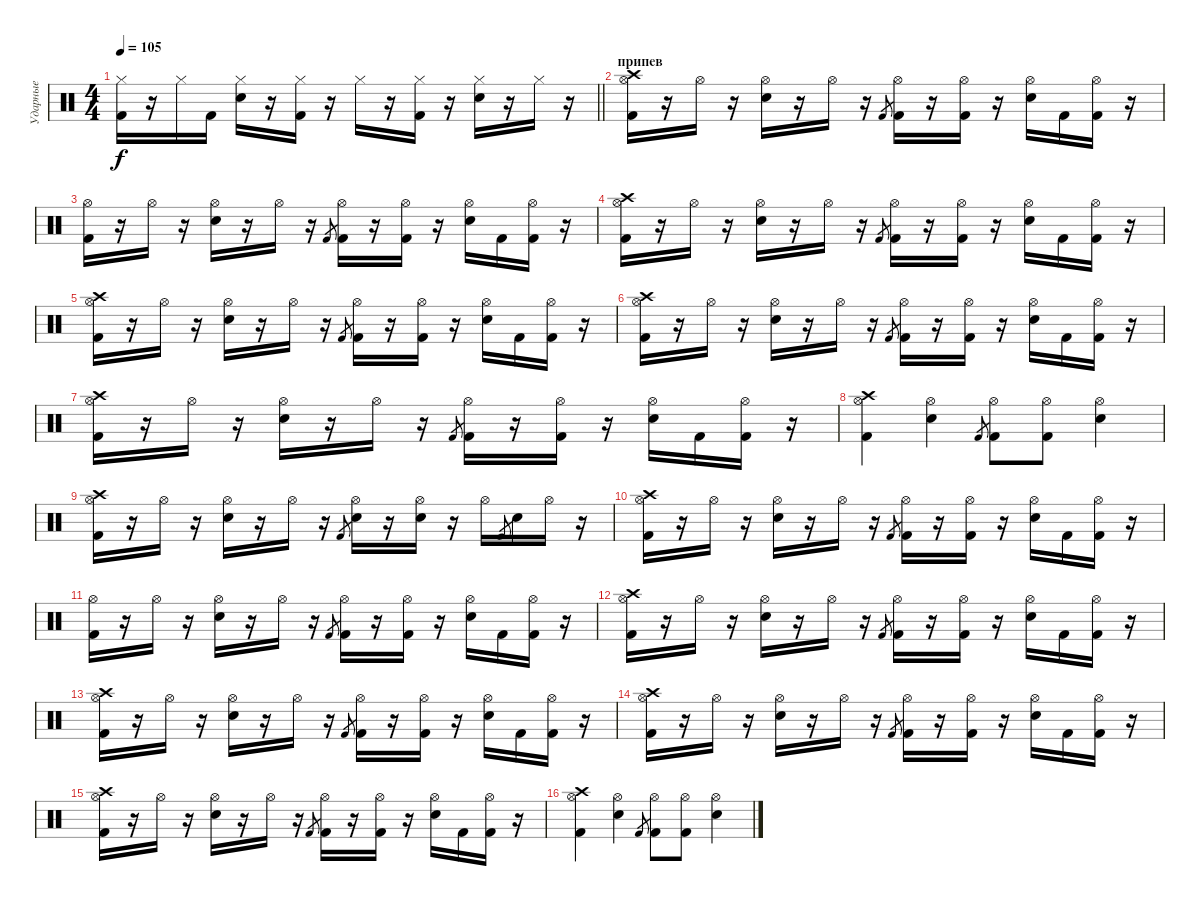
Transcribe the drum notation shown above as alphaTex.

\track ("Ударные" "Ударные") {instrument percussion}
\staff {score}
\articulation defaults
\ts (4 4)
\tempo 105
\clef neutral
\barLineRight lightlight
\ks c
("Hi-Hat (closed)" "Kick (hit) 2").16{dy f} r.16 "Hi-Hat (closed)".16 "Kick (hit) 2".16 ("Hi-Hat (closed)" "Electric Snare (hit)").16 r.16 ("Hi-Hat (closed)" "Kick (hit) 2").16 r.16 "Hi-Hat (closed)".16 r.16 ("Hi-Hat (closed)" "Kick (hit) 2").16 r.16 ("Hi-Hat (closed)" "Electric Snare (hit)").16 r.16 "Hi-Hat (closed)".16 r.16 |
\section ("" "припев")
("Hi-Hat (open)" "Crash high (hit)" "Kick (hit) 2").16 r.16 "Hi-Hat (open)".16 r.16 ("Hi-Hat (open)" "Electric Snare (hit)").16 r.16 "Hi-Hat (open)".16 r.16 "Kick (hit) 2".8{gr} ("Hi-Hat (open)" "Kick (hit) 2").16 r.16 ("Hi-Hat (open)" "Kick (hit) 2").16 r.16 ("Hi-Hat (open)" "Electric Snare (hit)").16 "Kick (hit) 2".16 ("Hi-Hat (open)" "Kick (hit) 2").16 r.16 |
("Hi-Hat (open)" "Kick (hit) 2").16 r.16 "Hi-Hat (open)".16 r.16 ("Hi-Hat (open)" "Electric Snare (hit)").16 r.16 "Hi-Hat (open)".16 r.16 "Kick (hit) 2".8{gr} ("Hi-Hat (open)" "Kick (hit) 2").16 r.16 ("Hi-Hat (open)" "Kick (hit) 2").16 r.16 ("Hi-Hat (open)" "Electric Snare (hit)").16 "Kick (hit) 2".16 ("Hi-Hat (open)" "Kick (hit) 2").16 r.16 |
("Hi-Hat (open)" "Crash high (hit)" "Kick (hit) 2").16 r.16 "Hi-Hat (open)".16 r.16 ("Hi-Hat (open)" "Electric Snare (hit)").16 r.16 "Hi-Hat (open)".16 r.16 "Kick (hit) 2".8{gr} ("Hi-Hat (open)" "Kick (hit) 2").16 r.16 ("Hi-Hat (open)" "Kick (hit) 2").16 r.16 ("Hi-Hat (open)" "Electric Snare (hit)").16 "Kick (hit) 2".16 ("Hi-Hat (open)" "Kick (hit) 2").16 r.16 |
("Hi-Hat (open)" "Crash high (hit)" "Kick (hit) 2").16 r.16 "Hi-Hat (open)".16 r.16 ("Hi-Hat (open)" "Electric Snare (hit)").16 r.16 "Hi-Hat (open)".16 r.16 "Kick (hit) 2".8{gr} ("Hi-Hat (open)" "Kick (hit) 2").16 r.16 ("Hi-Hat (open)" "Kick (hit) 2").16 r.16 ("Hi-Hat (open)" "Electric Snare (hit)").16 "Kick (hit) 2".16 ("Hi-Hat (open)" "Kick (hit) 2").16 r.16 |
("Hi-Hat (open)" "Crash high (hit)" "Kick (hit) 2").16 r.16 "Hi-Hat (open)".16 r.16 ("Hi-Hat (open)" "Electric Snare (hit)").16 r.16 "Hi-Hat (open)".16 r.16 "Kick (hit) 2".8{gr} ("Hi-Hat (open)" "Kick (hit) 2").16 r.16 ("Hi-Hat (open)" "Kick (hit) 2").16 r.16 ("Hi-Hat (open)" "Electric Snare (hit)").16 "Kick (hit) 2".16 ("Hi-Hat (open)" "Kick (hit) 2").16 r.16 |
("Hi-Hat (open)" "Crash high (hit)" "Kick (hit) 2").16 r.16 "Hi-Hat (open)".16 r.16 ("Hi-Hat (open)" "Electric Snare (hit)").16 r.16 "Hi-Hat (open)".16 r.16 "Kick (hit) 2".8{gr} ("Hi-Hat (open)" "Kick (hit) 2").16 r.16 ("Hi-Hat (open)" "Kick (hit) 2").16 r.16 ("Hi-Hat (open)" "Electric Snare (hit)").16 "Kick (hit) 2".16 ("Hi-Hat (open)" "Kick (hit) 2").16 r.16 |
("Hi-Hat (open)" "Crash high (hit)" "Kick (hit) 2").4 ("Hi-Hat (open)" "Electric Snare (hit)").4 "Kick (hit) 2".8{gr} ("Hi-Hat (open)" "Kick (hit) 2").8 ("Hi-Hat (open)" "Kick (hit) 2").8 ("Hi-Hat (open)" "Electric Snare (hit)").4 |
("Hi-Hat (open)" "Crash high (hit)" "Kick (hit) 2").16 r.16 "Hi-Hat (open)".16 r.16 ("Hi-Hat (open)" "Electric Snare (hit)").16 r.16 "Hi-Hat (open)".16 r.16 "Kick (hit) 2".8{gr} ("Hi-Hat (open)" "Electric Snare (hit)").16 r.16 ("Hi-Hat (open)" "Electric Snare (hit)").16 r.16 "Hi-Hat (open)".16 "Kick (hit) 2".8{gr} "Electric Snare (hit)".16 "Hi-Hat (open)".16 r.16 |
("Hi-Hat (open)" "Crash high (hit)" "Kick (hit) 2").16 r.16 "Hi-Hat (open)".16 r.16 ("Hi-Hat (open)" "Electric Snare (hit)").16 r.16 "Hi-Hat (open)".16 r.16 "Kick (hit) 2".8{gr} ("Hi-Hat (open)" "Kick (hit) 2").16 r.16 ("Hi-Hat (open)" "Kick (hit) 2").16 r.16 ("Hi-Hat (open)" "Electric Snare (hit)").16 "Kick (hit) 2".16 ("Hi-Hat (open)" "Kick (hit) 2").16 r.16 |
("Hi-Hat (open)" "Kick (hit) 2").16 r.16 "Hi-Hat (open)".16 r.16 ("Hi-Hat (open)" "Electric Snare (hit)").16 r.16 "Hi-Hat (open)".16 r.16 "Kick (hit) 2".8{gr} ("Hi-Hat (open)" "Kick (hit) 2").16 r.16 ("Hi-Hat (open)" "Kick (hit) 2").16 r.16 ("Hi-Hat (open)" "Electric Snare (hit)").16 "Kick (hit) 2".16 ("Hi-Hat (open)" "Kick (hit) 2").16 r.16 |
("Hi-Hat (open)" "Crash high (hit)" "Kick (hit) 2").16 r.16 "Hi-Hat (open)".16 r.16 ("Hi-Hat (open)" "Electric Snare (hit)").16 r.16 "Hi-Hat (open)".16 r.16 "Kick (hit) 2".8{gr} ("Hi-Hat (open)" "Kick (hit) 2").16 r.16 ("Hi-Hat (open)" "Kick (hit) 2").16 r.16 ("Hi-Hat (open)" "Electric Snare (hit)").16 "Kick (hit) 2".16 ("Hi-Hat (open)" "Kick (hit) 2").16 r.16 |
("Hi-Hat (open)" "Crash high (hit)" "Kick (hit) 2").16 r.16 "Hi-Hat (open)".16 r.16 ("Hi-Hat (open)" "Electric Snare (hit)").16 r.16 "Hi-Hat (open)".16 r.16 "Kick (hit) 2".8{gr} ("Hi-Hat (open)" "Kick (hit) 2").16 r.16 ("Hi-Hat (open)" "Kick (hit) 2").16 r.16 ("Hi-Hat (open)" "Electric Snare (hit)").16 "Kick (hit) 2".16 ("Hi-Hat (open)" "Kick (hit) 2").16 r.16 |
("Hi-Hat (open)" "Crash high (hit)" "Kick (hit) 2").16 r.16 "Hi-Hat (open)".16 r.16 ("Hi-Hat (open)" "Electric Snare (hit)").16 r.16 "Hi-Hat (open)".16 r.16 "Kick (hit) 2".8{gr} ("Hi-Hat (open)" "Kick (hit) 2").16 r.16 ("Hi-Hat (open)" "Kick (hit) 2").16 r.16 ("Hi-Hat (open)" "Electric Snare (hit)").16 "Kick (hit) 2".16 ("Hi-Hat (open)" "Kick (hit) 2").16 r.16 |
("Hi-Hat (open)" "Crash high (hit)" "Kick (hit) 2").16 r.16 "Hi-Hat (open)".16 r.16 ("Hi-Hat (open)" "Electric Snare (hit)").16 r.16 "Hi-Hat (open)".16 r.16 "Kick (hit) 2".8{gr} ("Hi-Hat (open)" "Kick (hit) 2").16 r.16 ("Hi-Hat (open)" "Kick (hit) 2").16 r.16 ("Hi-Hat (open)" "Electric Snare (hit)").16 "Kick (hit) 2".16 ("Hi-Hat (open)" "Kick (hit) 2").16 r.16 |
("Hi-Hat (open)" "Crash high (hit)" "Kick (hit) 2").4 ("Hi-Hat (open)" "Electric Snare (hit)").4 "Kick (hit) 2".8{gr} ("Hi-Hat (open)" "Kick (hit) 2").8 ("Hi-Hat (open)" "Kick (hit) 2").8 ("Hi-Hat (open)" "Electric Snare (hit)").4
